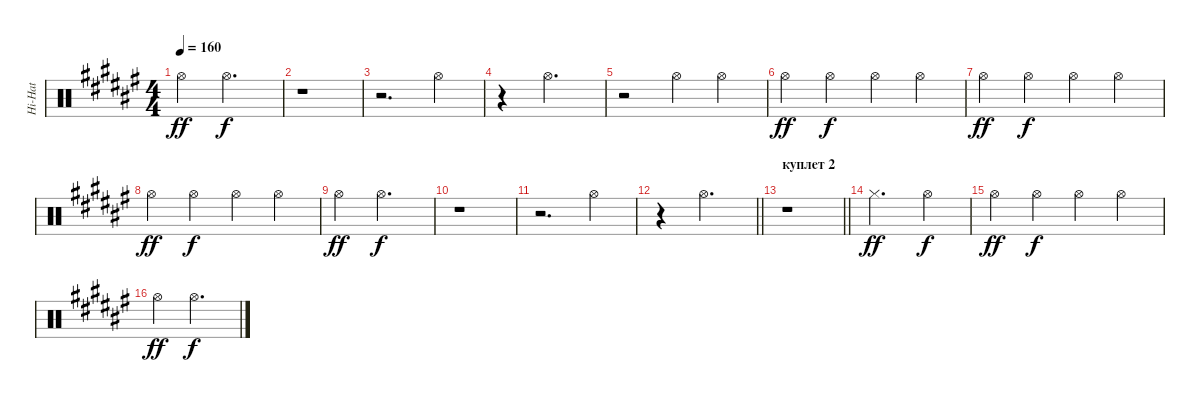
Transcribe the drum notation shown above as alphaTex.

\track ("Hi-Hat" "Hi-Hat") {instrument percussion}
\staff {score}
\articulation defaults
\ts (4 4)
\tempo 160
\clef neutral
\ks d#minor "Hi-Hat (open)".4{dy ff} "Hi-Hat (open)".2{d dy f}
|
r.1 |
r.2{d} "Hi-Hat (open)".4 |
r.4 "Hi-Hat (open)".2{d} |
r.2 "Hi-Hat (open)".4 "Hi-Hat (open)".4 |
"Hi-Hat (open)".4{dy ff} "Hi-Hat (open)".4{dy f} "Hi-Hat (open)".4 "Hi-Hat (open)".4 |
"Hi-Hat (open)".4{dy ff} "Hi-Hat (open)".4{dy f} "Hi-Hat (open)".4 "Hi-Hat (open)".4 |
"Hi-Hat (open)".4{dy ff} "Hi-Hat (open)".4{dy f} "Hi-Hat (open)".4 "Hi-Hat (open)".4 |
"Hi-Hat (open)".4{dy ff} "Hi-Hat (open)".2{d dy f} |
r.1 |
r.2{d} "Hi-Hat (open)".4 |
\barLineRight lightlight
r.4 "Hi-Hat (open)".2{d} |
\section ("" "куплет 2")
\barLineRight lightlight
r.1 |
"Hi-Hat (closed)".2{d dy ff} "Hi-Hat (open)".4{dy f} |
"Hi-Hat (open)".4{dy ff} "Hi-Hat (open)".4{dy f} "Hi-Hat (open)".4 "Hi-Hat (open)".4 |
"Hi-Hat (open)".4{dy ff} "Hi-Hat (open)".2{d dy f}
